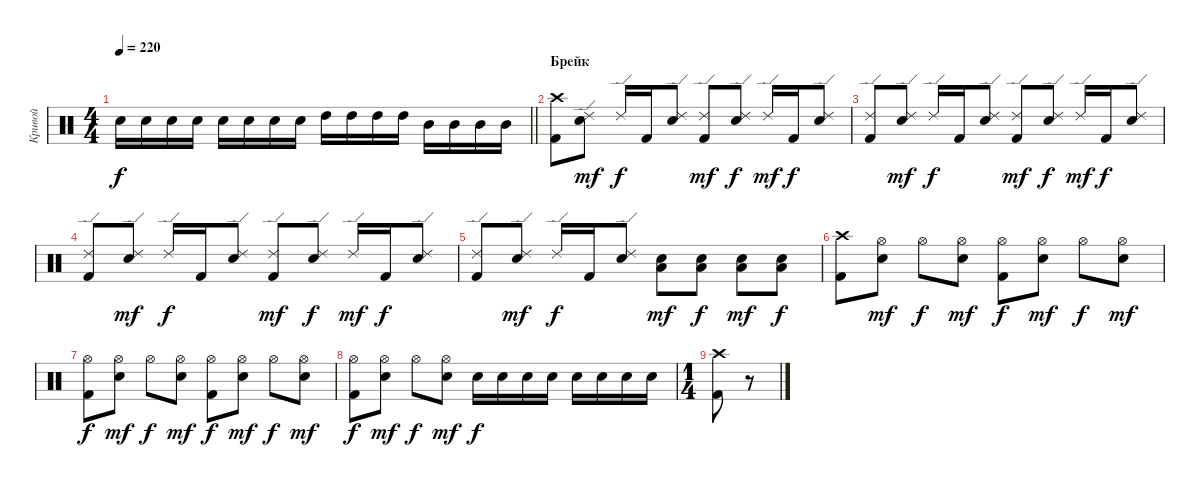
\track ("Кривой" "Кривой") {instrument percussion}
\staff {score}
\articulation defaults
\ts (4 4)
\tempo 220
\clef neutral
\barLineRight lightlight
\ks c "Snare (hit) 2".16{dy f} "Snare (hit) 2".16 "Snare (hit) 2".16 "Snare (hit) 2".16 "Snare (hit) 2".16 "Snare (hit) 2".16 "Snare (hit) 2".16 "Snare (hit) 2".16 "High Tom (hit)".16 "High Tom (hit)".16 "High Tom (hit)".16 "High Tom (hit)".16 "Mid Tom (hit)".16 "Mid Tom (hit)".16 "Mid Tom (hit)".16 "Mid Tom (hit)".16
|
\section ("" "Брейк")
("Crash high (hit)" "Kick (hit) 2").8 ("Ride (edge) 2" "Snare (hit) 2").8{dy mf} "Ride (edge) 2".16{dy f} "Kick (hit) 2".16 ("Ride (edge) 2" "Snare (hit) 2").8 ("Ride (edge) 2" "Kick (hit) 2").8{dy mf} ("Ride (edge) 2" "Snare (hit) 2").8{dy f} "Ride (edge) 2".16{dy mf} "Kick (hit) 2".16{dy f} ("Ride (edge) 2" "Snare (hit) 2").8 |
("Ride (edge) 2" "Kick (hit) 2").8 ("Ride (edge) 2" "Snare (hit) 2").8{dy mf} "Ride (edge) 2".16{dy f} "Kick (hit) 2".16 ("Ride (edge) 2" "Snare (hit) 2").8 ("Ride (edge) 2" "Kick (hit) 2").8{dy mf} ("Ride (edge) 2" "Snare (hit) 2").8{dy f} "Ride (edge) 2".16{dy mf} "Kick (hit) 2".16{dy f} ("Ride (edge) 2" "Snare (hit) 2").8 |
("Ride (edge) 2" "Kick (hit) 2").8 ("Ride (edge) 2" "Snare (hit) 2").8{dy mf} "Ride (edge) 2".16{dy f} "Kick (hit) 2".16 ("Ride (edge) 2" "Snare (hit) 2").8 ("Ride (edge) 2" "Kick (hit) 2").8{dy mf} ("Ride (edge) 2" "Snare (hit) 2").8{dy f} "Ride (edge) 2".16{dy mf} "Kick (hit) 2".16{dy f} ("Ride (edge) 2" "Snare (hit) 2").8 |
("Ride (edge) 2" "Kick (hit) 2").8 ("Ride (edge) 2" "Snare (hit) 2").8{dy mf} "Ride (edge) 2".16{dy f} "Kick (hit) 2".16 ("Ride (edge) 2" "Snare (hit) 2").8 ("Low Tom (hit)" "Snare (hit) 2").8{dy mf} ("Low Tom (hit)" "Snare (hit) 2").8{dy f} ("Low Tom (hit)" "Snare (hit) 2").8{dy mf} ("Low Tom (hit)" "Snare (hit) 2").8{dy f} |
("Crash high (hit)" "Kick (hit) 2").8 ("Hi-Hat (open)" "Snare (hit) 2").8{dy mf} "Hi-Hat (open)".8{dy f} ("Hi-Hat (open)" "Snare (hit) 2").8{dy mf} ("Hi-Hat (open)" "Kick (hit) 2").8{dy f} ("Hi-Hat (open)" "Snare (hit) 2").8{dy mf} "Hi-Hat (open)".8{dy f} ("Hi-Hat (open)" "Snare (hit) 2").8{dy mf} |
("Hi-Hat (open)" "Kick (hit) 2").8{dy f} ("Hi-Hat (open)" "Snare (hit) 2").8{dy mf} "Hi-Hat (open)".8{dy f} ("Hi-Hat (open)" "Snare (hit) 2").8{dy mf} ("Hi-Hat (open)" "Kick (hit) 2").8{dy f} ("Hi-Hat (open)" "Snare (hit) 2").8{dy mf} "Hi-Hat (open)".8{dy f} ("Hi-Hat (open)" "Snare (hit) 2").8{dy mf} |
("Hi-Hat (open)" "Kick (hit) 2").8{dy f} ("Hi-Hat (open)" "Snare (hit) 2").8{dy mf} "Hi-Hat (open)".8{dy f} ("Hi-Hat (open)" "Snare (hit) 2").8{dy mf} "Snare (hit) 2".16{dy f} "Snare (hit) 2".16 "Snare (hit) 2".16 "Snare (hit) 2".16 "Snare (hit) 2".16 "Snare (hit) 2".16 "Snare (hit) 2".16 "Snare (hit) 2".16 |
\ts (1 4)
("Crash high (hit)" "Kick (hit) 2").8 r.8
